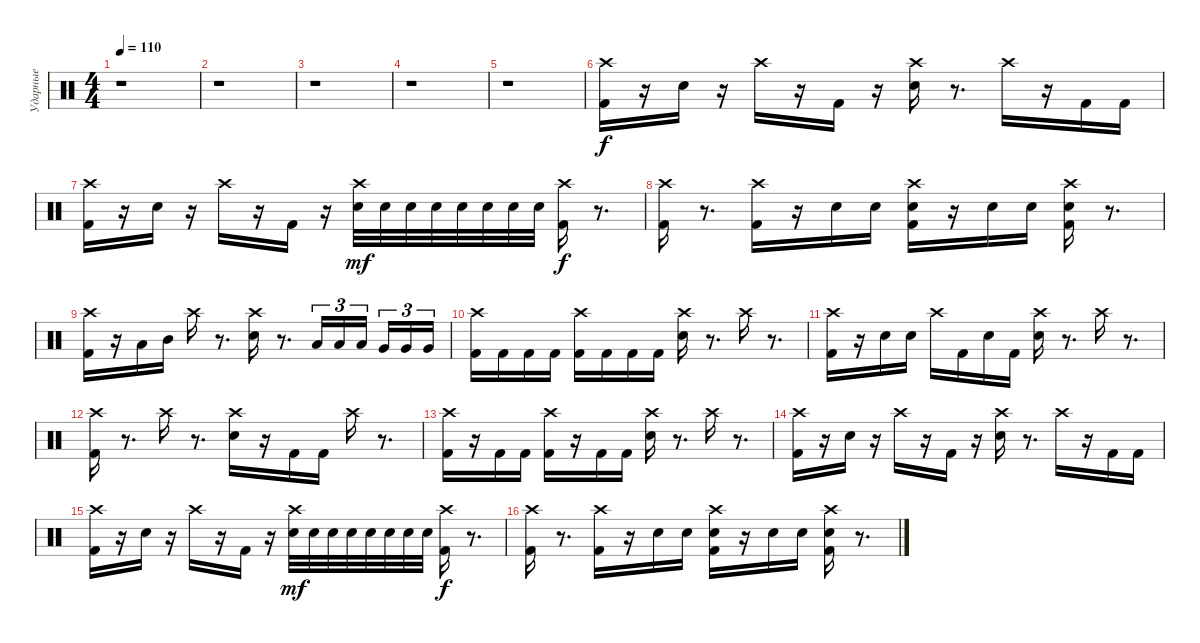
\track ("Ударные" "Ударные") {instrument percussion}
\staff {score}
\articulation defaults
\ts (4 4)
\tempo 110
\clef neutral
\ks c
r.1{dy mf} |
r.1 |
r.1 |
r.1 |
r.1 |
("Crash high (hit)" "Kick (hit) 2").16{dy f} r.16 "Electric Snare (hit)".16 r.16 "Crash high (hit)".16 r.16 "Kick (hit) 2".16 r.16 ("Crash high (hit)" "Electric Snare (hit)").16 r.8{d} "Crash high (hit)".16 r.16 "Kick (hit) 2".16 "Kick (hit) 2".16 |
("Crash high (hit)" "Kick (hit) 2").16 r.16 "Electric Snare (hit)".16 r.16 "Crash high (hit)".16 r.16 "Kick (hit) 2".16 r.16 ("Crash high (hit)" "Electric Snare (hit)").32{dy mf} "Electric Snare (hit)".32 "Electric Snare (hit)".32 "Electric Snare (hit)".32 "Electric Snare (hit)".32 "Electric Snare (hit)".32 "Electric Snare (hit)".32 "Electric Snare (hit)".32 ("Crash high (hit)" "Kick (hit) 2").16{dy f} r.8{d} |
("Crash high (hit)" "Kick (hit) 2").16 r.8{d} ("Crash high (hit)" "Kick (hit) 2").16 r.16 "Electric Snare (hit)".16 "Electric Snare (hit)".16 ("Crash high (hit)" "Electric Snare (hit)" "Kick (hit) 2").16 r.16 "Electric Snare (hit)".16 "Electric Snare (hit)".16 ("Crash high (hit)" "Electric Snare (hit)" "Kick (hit) 2").16 r.8{d} |
("Crash high (hit)" "Kick (hit) 2").16 r.16 "Low Tom (hit)".16 "Mid Tom (hit)".16 "Crash high (hit)".16 r.8{d} ("Crash high (hit)" "Electric Snare (hit)").16 r.8{d} "Low Tom (hit)".16{tu (3 2)} "Low Tom (hit)".16{tu (3 2)} "Low Tom (hit)".16{tu (3 2) beam splitsecondary} "Very Low Tom (hit)".16{tu (3 2)} "Very Low Tom (hit)".16{tu (3 2)} "Very Low Tom (hit)".16{tu (3 2)} |
("Crash high (hit)" "Kick (hit) 2").16 "Kick (hit) 2".16 "Kick (hit) 2".16 "Kick (hit) 2".16 ("Crash high (hit)" "Kick (hit) 2").16 "Kick (hit) 2".16 "Kick (hit) 2".16 "Kick (hit) 2".16 ("Crash high (hit)" "Electric Snare (hit)").16 r.8{d} "Crash high (hit)".16 r.8{d} |
("Crash high (hit)" "Kick (hit) 2").16 r.16 "Electric Snare (hit)".16 "Electric Snare (hit)".16 "Crash high (hit)".16 "Kick (hit) 2".16 "Electric Snare (hit)".16 "Kick (hit) 2".16 ("Crash high (hit)" "Electric Snare (hit)").16 r.8{d} "Crash high (hit)".16 r.8{d} |
("Crash high (hit)" "Kick (hit) 2").16 r.8{d} "Crash high (hit)".16 r.8{d} ("Crash high (hit)" "Electric Snare (hit)").16 r.16 "Kick (hit) 2".16 "Kick (hit) 2".16 "Crash high (hit)".16 r.8{d} |
("Crash high (hit)" "Kick (hit) 2").16 r.16 "Kick (hit) 2".16 "Kick (hit) 2".16 ("Crash high (hit)" "Kick (hit) 2").16 r.16 "Kick (hit) 2".16 "Kick (hit) 2".16 ("Crash high (hit)" "Electric Snare (hit)").16 r.8{d} "Crash high (hit)".16 r.8{d} |
("Crash high (hit)" "Kick (hit) 2").16 r.16 "Electric Snare (hit)".16 r.16 "Crash high (hit)".16 r.16 "Kick (hit) 2".16 r.16 ("Crash high (hit)" "Electric Snare (hit)").16 r.8{d} "Crash high (hit)".16 r.16 "Kick (hit) 2".16 "Kick (hit) 2".16 |
("Crash high (hit)" "Kick (hit) 2").16 r.16 "Electric Snare (hit)".16 r.16 "Crash high (hit)".16 r.16 "Kick (hit) 2".16 r.16 ("Crash high (hit)" "Electric Snare (hit)").32{dy mf} "Electric Snare (hit)".32 "Electric Snare (hit)".32 "Electric Snare (hit)".32 "Electric Snare (hit)".32 "Electric Snare (hit)".32 "Electric Snare (hit)".32 "Electric Snare (hit)".32 ("Crash high (hit)" "Kick (hit) 2").16{dy f} r.8{d} |
("Crash high (hit)" "Kick (hit) 2").16 r.8{d} ("Crash high (hit)" "Kick (hit) 2").16 r.16 "Electric Snare (hit)".16 "Electric Snare (hit)".16 ("Crash high (hit)" "Electric Snare (hit)" "Kick (hit) 2").16 r.16 "Electric Snare (hit)".16 "Electric Snare (hit)".16 ("Crash high (hit)" "Electric Snare (hit)" "Kick (hit) 2").16 r.8{d}
